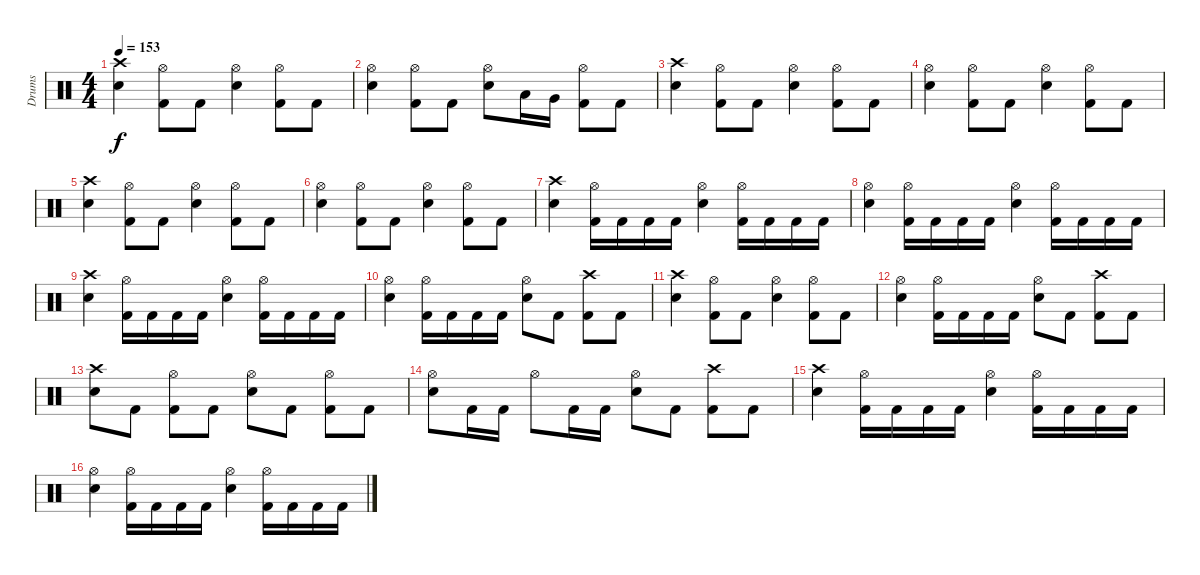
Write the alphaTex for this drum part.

\track ("Drums" "Drums") {instrument percussion}
\staff {score}
\articulation defaults
\ts (4 4)
\tempo 153
\clef neutral
\ks c
("Crash high (hit)" "Electric Snare (hit)").4{dy f} ("Hi-Hat (open)" "Kick (hit) 2").8 "Kick (hit) 2".8 ("Hi-Hat (open)" "Electric Snare (hit)").4 ("Hi-Hat (open)" "Kick (hit) 2").8 "Kick (hit) 2".8 |
("Hi-Hat (open)" "Electric Snare (hit)").4 ("Hi-Hat (open)" "Kick (hit) 2").8 "Kick (hit) 2".8 ("Hi-Hat (open)" "Electric Snare (hit)").8 "Low Tom (hit)".16 "Very Low Tom (hit)".16 ("Hi-Hat (open)" "Kick (hit) 2").8 "Kick (hit) 2".8 |
("Crash high (hit)" "Electric Snare (hit)").4 ("Hi-Hat (open)" "Kick (hit) 2").8 "Kick (hit) 2".8 ("Hi-Hat (open)" "Electric Snare (hit)").4 ("Hi-Hat (open)" "Kick (hit) 2").8 "Kick (hit) 2".8 |
("Hi-Hat (open)" "Electric Snare (hit)").4 ("Hi-Hat (open)" "Kick (hit) 2").8 "Kick (hit) 2".8 ("Hi-Hat (open)" "Electric Snare (hit)").4 ("Hi-Hat (open)" "Kick (hit) 2").8 "Kick (hit) 2".8 |
("Crash high (hit)" "Electric Snare (hit)").4 ("Hi-Hat (open)" "Kick (hit) 2").8 "Kick (hit) 2".8 ("Hi-Hat (open)" "Electric Snare (hit)").4 ("Hi-Hat (open)" "Kick (hit) 2").8 "Kick (hit) 2".8 |
("Hi-Hat (open)" "Electric Snare (hit)").4 ("Hi-Hat (open)" "Kick (hit) 2").8 "Kick (hit) 2".8 ("Hi-Hat (open)" "Electric Snare (hit)").4 ("Hi-Hat (open)" "Kick (hit) 2").8 "Kick (hit) 2".8 |
("Crash high (hit)" "Electric Snare (hit)").4 ("Hi-Hat (open)" "Kick (hit) 2").16 "Kick (hit) 2".16 "Kick (hit) 2".16 "Kick (hit) 2".16 ("Hi-Hat (open)" "Electric Snare (hit)").4 ("Hi-Hat (open)" "Kick (hit) 2").16 "Kick (hit) 2".16 "Kick (hit) 2".16 "Kick (hit) 2".16 |
("Hi-Hat (open)" "Electric Snare (hit)").4 ("Hi-Hat (open)" "Kick (hit) 2").16 "Kick (hit) 2".16 "Kick (hit) 2".16 "Kick (hit) 2".16 ("Hi-Hat (open)" "Electric Snare (hit)").4 ("Hi-Hat (open)" "Kick (hit) 2").16 "Kick (hit) 2".16 "Kick (hit) 2".16 "Kick (hit) 2".16 |
("Crash high (hit)" "Electric Snare (hit)").4 ("Hi-Hat (open)" "Kick (hit) 2").16 "Kick (hit) 2".16 "Kick (hit) 2".16 "Kick (hit) 2".16 ("Hi-Hat (open)" "Electric Snare (hit)").4 ("Hi-Hat (open)" "Kick (hit) 2").16 "Kick (hit) 2".16 "Kick (hit) 2".16 "Kick (hit) 2".16 |
("Hi-Hat (open)" "Electric Snare (hit)").4 ("Hi-Hat (open)" "Kick (hit) 2").16 "Kick (hit) 2".16 "Kick (hit) 2".16 "Kick (hit) 2".16 ("Hi-Hat (open)" "Electric Snare (hit)").8 "Kick (hit) 2".8 ("Crash high (hit)" "Kick (hit) 2").8 "Kick (hit) 2".8 |
("Crash high (hit)" "Electric Snare (hit)").4 ("Hi-Hat (open)" "Kick (hit) 2").8 "Kick (hit) 2".8 ("Hi-Hat (open)" "Electric Snare (hit)").4 ("Hi-Hat (open)" "Kick (hit) 2").8 "Kick (hit) 2".8 |
("Hi-Hat (open)" "Electric Snare (hit)").4 ("Hi-Hat (open)" "Kick (hit) 2").16 "Kick (hit) 2".16 "Kick (hit) 2".16 "Kick (hit) 2".16 ("Hi-Hat (open)" "Electric Snare (hit)").8 "Kick (hit) 2".8 ("Crash high (hit)" "Kick (hit) 2").8 "Kick (hit) 2".8 |
("Crash high (hit)" "Electric Snare (hit)").8 "Kick (hit) 2".8 ("Hi-Hat (open)" "Kick (hit) 2").8 "Kick (hit) 2".8 ("Hi-Hat (open)" "Electric Snare (hit)").8 "Kick (hit) 2".8 ("Hi-Hat (open)" "Kick (hit) 2").8 "Kick (hit) 2".8 |
("Hi-Hat (open)" "Electric Snare (hit)").8 "Kick (hit) 2".16 "Kick (hit) 2".16 "Hi-Hat (open)".8 "Kick (hit) 2".16 "Kick (hit) 2".16 ("Hi-Hat (open)" "Electric Snare (hit)").8 "Kick (hit) 2".8 ("Crash high (hit)" "Kick (hit) 2").8 "Kick (hit) 2".8 |
("Crash high (hit)" "Electric Snare (hit)").4 ("Hi-Hat (open)" "Kick (hit) 2").16 "Kick (hit) 2".16 "Kick (hit) 2".16 "Kick (hit) 2".16 ("Hi-Hat (open)" "Electric Snare (hit)").4 ("Hi-Hat (open)" "Kick (hit) 2").16 "Kick (hit) 2".16 "Kick (hit) 2".16 "Kick (hit) 2".16 |
("Hi-Hat (open)" "Electric Snare (hit)").4 ("Hi-Hat (open)" "Kick (hit) 2").16 "Kick (hit) 2".16 "Kick (hit) 2".16 "Kick (hit) 2".16 ("Hi-Hat (open)" "Electric Snare (hit)").4 ("Hi-Hat (open)" "Kick (hit) 2").16 "Kick (hit) 2".16 "Kick (hit) 2".16 "Kick (hit) 2".16
